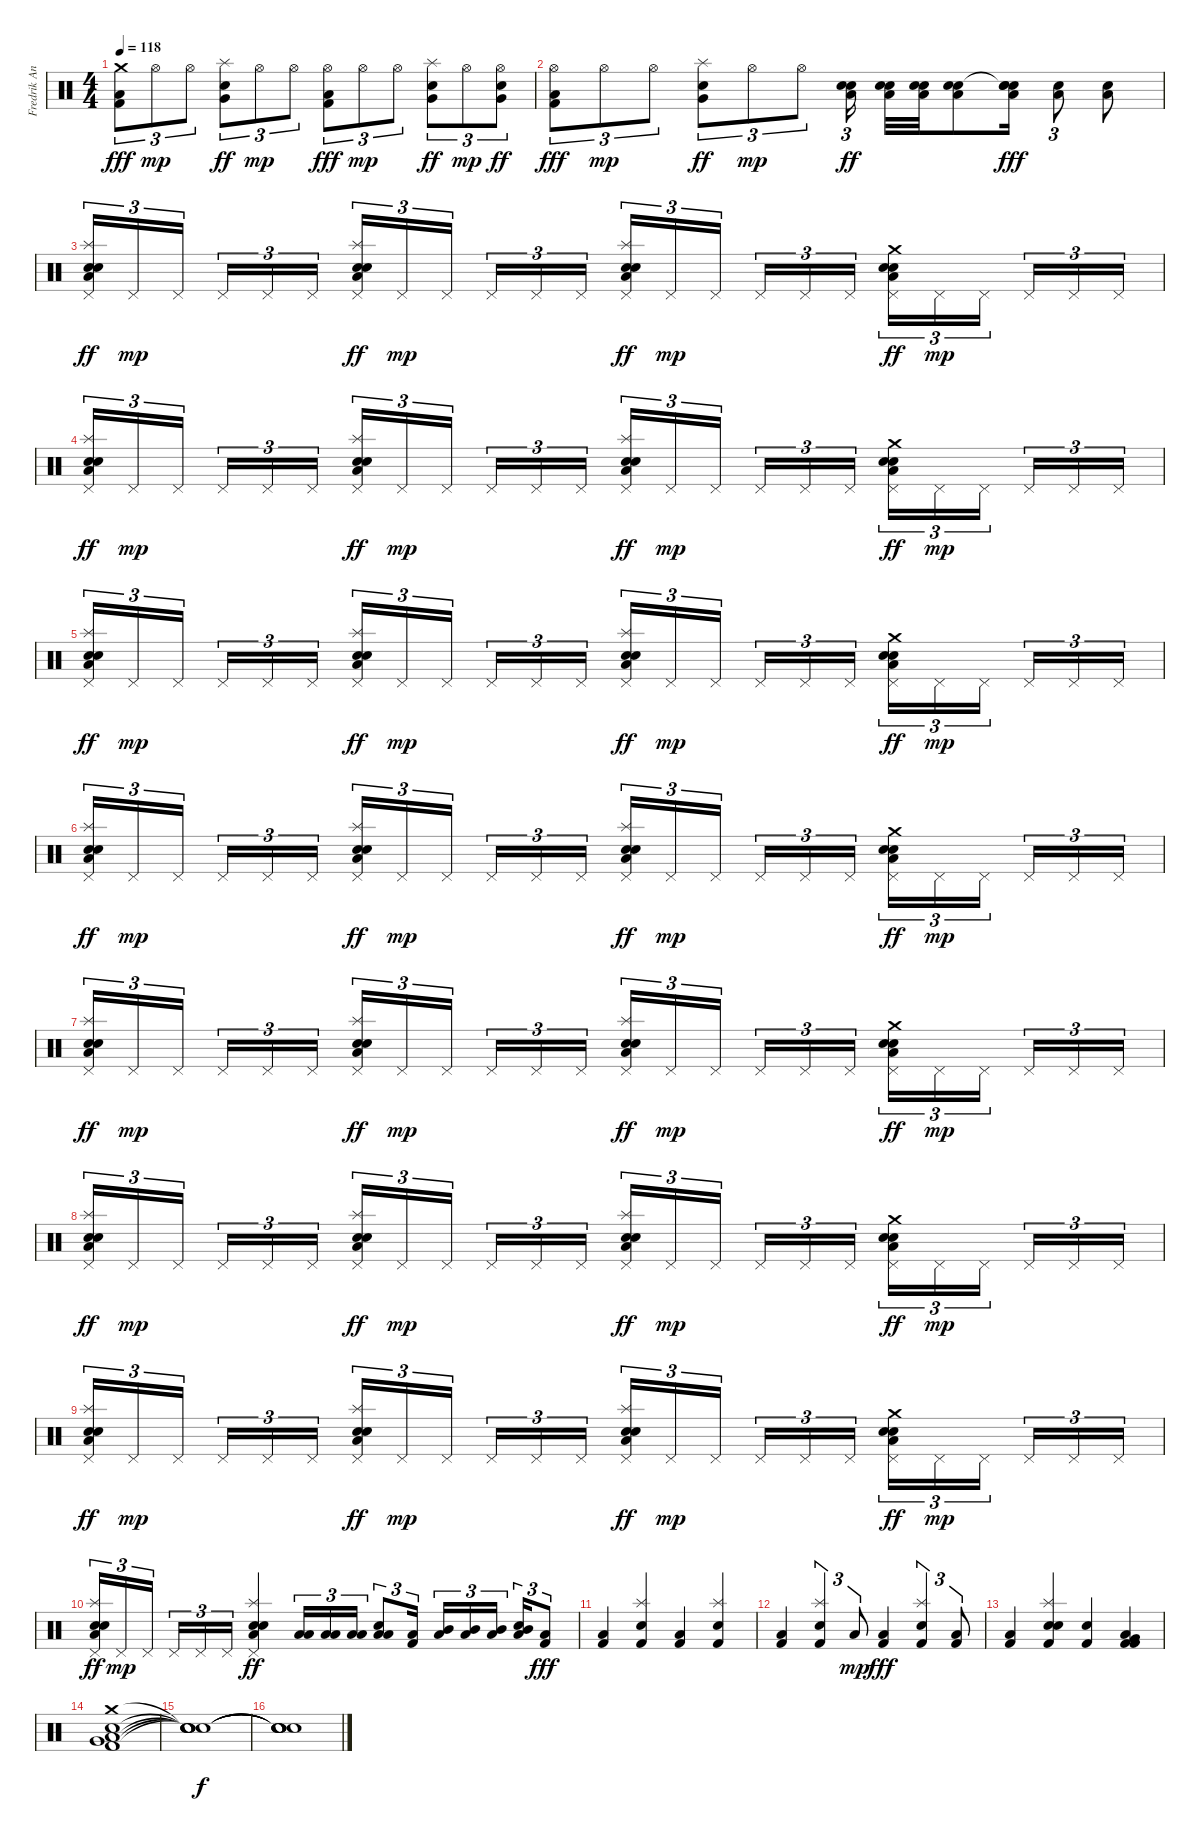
\track ("Fredrik Andersson " "Fredrik An") {instrument percussion}
\staff {score}
\articulation defaults
\ts (4 4)
\tempo 118
\clef neutral
\ks c
("Crash medium (hit)" "Kick (hit) 2" "Low Floor Tom (hit)").8{tu (3 2) dy fff} "Hi-Hat (open)".8{tu (3 2) dy mp} "Hi-Hat (open)".8{tu (3 2)} ("Splash (hit)" "Very Low Tom (hit)" "Snare (hit) 2").8{tu (3 2) dy ff} "Hi-Hat (open)".8{tu (3 2) dy mp} "Hi-Hat (open)".8{tu (3 2)} ("Hi-Hat (open)" "Kick (hit) 2" "Low Floor Tom (hit)").8{tu (3 2) dy fff} "Hi-Hat (open)".8{tu (3 2) dy mp} "Hi-Hat (open)".8{tu (3 2)} ("Splash (hit)" "Very Low Tom (hit)" "Snare (hit) 2").8{tu (3 2) dy ff} "Hi-Hat (open)".8{tu (3 2) dy mp} ("Hi-Hat (open)" "Very Low Tom (hit)" "Snare (hit) 2").8{tu (3 2) dy ff} |
("Hi-Hat (open)" "Kick (hit) 2" "Low Floor Tom (hit)").8{tu (3 2) dy fff} "Hi-Hat (open)".8{tu (3 2) dy mp} "Hi-Hat (open)".8{tu (3 2)} ("Splash (hit)" "Very Low Tom (hit)" "Snare (hit) 2").8{tu (3 2) dy ff} "Hi-Hat (open)".8{tu (3 2) dy mp} "Hi-Hat (open)".8{tu (3 2)} ("Snare (hit) 2" "Electric Snare (hit)" "Low Floor Tom (hit)").16{tu (3 2) dy ff beam splitsecondary} ("Snare (hit) 2" "Electric Snare (hit)" "Low Floor Tom (hit)").32 ("Snare (hit) 2" "Electric Snare (hit)" "Low Floor Tom (hit)").32 ("Snare (hit) 2" "Electric Snare (hit)" "Low Floor Tom (hit)").8 ("Snare (hit)"{t} "Snare (hit) 2" "Low Floor Tom (hit)" "Snare (hit)"{t}).16{dy fff} ("Snare (hit) 2" "Low Floor Tom (hit)").8{tu (3 2)} ("Snare (hit) 2" "Low Floor Tom (hit)").8 |
("Splash (hit)" "Pedal Hi-Hat (hit)" "Electric Snare (hit)" "Snare (hit) 2" "Low Floor Tom (hit)").16{tu (3 2) dy ff} "Pedal Hi-Hat (hit)".16{tu (3 2) dy mp} "Pedal Hi-Hat (hit)".16{tu (3 2) beam splitsecondary} "Pedal Hi-Hat (hit)".16{tu (3 2)} "Pedal Hi-Hat (hit)".16{tu (3 2)} "Pedal Hi-Hat (hit)".16{tu (3 2)} ("Splash (hit)" "Pedal Hi-Hat (hit)" "Electric Snare (hit)" "Snare (hit) 2" "Low Floor Tom (hit)").16{tu (3 2) dy ff} "Pedal Hi-Hat (hit)".16{tu (3 2) dy mp} "Pedal Hi-Hat (hit)".16{tu (3 2) beam splitsecondary} "Pedal Hi-Hat (hit)".16{tu (3 2)} "Pedal Hi-Hat (hit)".16{tu (3 2)} "Pedal Hi-Hat (hit)".16{tu (3 2)} ("Splash (hit)" "Pedal Hi-Hat (hit)" "Electric Snare (hit)" "Snare (hit) 2" "Low Floor Tom (hit)").16{tu (3 2) dy ff} "Pedal Hi-Hat (hit)".16{tu (3 2) dy mp} "Pedal Hi-Hat (hit)".16{tu (3 2) beam splitsecondary} "Pedal Hi-Hat (hit)".16{tu (3 2)} "Pedal Hi-Hat (hit)".16{tu (3 2)} "Pedal Hi-Hat (hit)".16{tu (3 2)} ("Crash medium (hit)" "Pedal Hi-Hat (hit)" "Electric Snare (hit)" "Snare (hit) 2" "Low Floor Tom (hit)").16{tu (3 2) dy ff} "Pedal Hi-Hat (hit)".16{tu (3 2) dy mp} "Pedal Hi-Hat (hit)".16{tu (3 2) beam splitsecondary} "Pedal Hi-Hat (hit)".16{tu (3 2)} "Pedal Hi-Hat (hit)".16{tu (3 2)} "Pedal Hi-Hat (hit)".16{tu (3 2)} |
("Splash (hit)" "Pedal Hi-Hat (hit)" "Electric Snare (hit)" "Snare (hit) 2" "Low Floor Tom (hit)").16{tu (3 2) dy ff} "Pedal Hi-Hat (hit)".16{tu (3 2) dy mp} "Pedal Hi-Hat (hit)".16{tu (3 2) beam splitsecondary} "Pedal Hi-Hat (hit)".16{tu (3 2)} "Pedal Hi-Hat (hit)".16{tu (3 2)} "Pedal Hi-Hat (hit)".16{tu (3 2)} ("Splash (hit)" "Pedal Hi-Hat (hit)" "Electric Snare (hit)" "Snare (hit) 2" "Low Floor Tom (hit)").16{tu (3 2) dy ff} "Pedal Hi-Hat (hit)".16{tu (3 2) dy mp} "Pedal Hi-Hat (hit)".16{tu (3 2) beam splitsecondary} "Pedal Hi-Hat (hit)".16{tu (3 2)} "Pedal Hi-Hat (hit)".16{tu (3 2)} "Pedal Hi-Hat (hit)".16{tu (3 2)} ("Splash (hit)" "Pedal Hi-Hat (hit)" "Electric Snare (hit)" "Snare (hit) 2" "Low Floor Tom (hit)").16{tu (3 2) dy ff} "Pedal Hi-Hat (hit)".16{tu (3 2) dy mp} "Pedal Hi-Hat (hit)".16{tu (3 2) beam splitsecondary} "Pedal Hi-Hat (hit)".16{tu (3 2)} "Pedal Hi-Hat (hit)".16{tu (3 2)} "Pedal Hi-Hat (hit)".16{tu (3 2)} ("Crash medium (hit)" "Pedal Hi-Hat (hit)" "Electric Snare (hit)" "Snare (hit) 2" "Low Floor Tom (hit)").16{tu (3 2) dy ff} "Pedal Hi-Hat (hit)".16{tu (3 2) dy mp} "Pedal Hi-Hat (hit)".16{tu (3 2) beam splitsecondary} "Pedal Hi-Hat (hit)".16{tu (3 2)} "Pedal Hi-Hat (hit)".16{tu (3 2)} "Pedal Hi-Hat (hit)".16{tu (3 2)} |
("Splash (hit)" "Pedal Hi-Hat (hit)" "Electric Snare (hit)" "Snare (hit) 2" "Low Floor Tom (hit)").16{tu (3 2) dy ff} "Pedal Hi-Hat (hit)".16{tu (3 2) dy mp} "Pedal Hi-Hat (hit)".16{tu (3 2) beam splitsecondary} "Pedal Hi-Hat (hit)".16{tu (3 2)} "Pedal Hi-Hat (hit)".16{tu (3 2)} "Pedal Hi-Hat (hit)".16{tu (3 2)} ("Splash (hit)" "Pedal Hi-Hat (hit)" "Electric Snare (hit)" "Snare (hit) 2" "Low Floor Tom (hit)").16{tu (3 2) dy ff} "Pedal Hi-Hat (hit)".16{tu (3 2) dy mp} "Pedal Hi-Hat (hit)".16{tu (3 2) beam splitsecondary} "Pedal Hi-Hat (hit)".16{tu (3 2)} "Pedal Hi-Hat (hit)".16{tu (3 2)} "Pedal Hi-Hat (hit)".16{tu (3 2)} ("Splash (hit)" "Pedal Hi-Hat (hit)" "Electric Snare (hit)" "Snare (hit) 2" "Low Floor Tom (hit)").16{tu (3 2) dy ff} "Pedal Hi-Hat (hit)".16{tu (3 2) dy mp} "Pedal Hi-Hat (hit)".16{tu (3 2) beam splitsecondary} "Pedal Hi-Hat (hit)".16{tu (3 2)} "Pedal Hi-Hat (hit)".16{tu (3 2)} "Pedal Hi-Hat (hit)".16{tu (3 2)} ("Crash medium (hit)" "Pedal Hi-Hat (hit)" "Electric Snare (hit)" "Snare (hit) 2" "Low Floor Tom (hit)").16{tu (3 2) dy ff} "Pedal Hi-Hat (hit)".16{tu (3 2) dy mp} "Pedal Hi-Hat (hit)".16{tu (3 2) beam splitsecondary} "Pedal Hi-Hat (hit)".16{tu (3 2)} "Pedal Hi-Hat (hit)".16{tu (3 2)} "Pedal Hi-Hat (hit)".16{tu (3 2)} |
("Splash (hit)" "Pedal Hi-Hat (hit)" "Electric Snare (hit)" "Snare (hit) 2" "Low Floor Tom (hit)").16{tu (3 2) dy ff} "Pedal Hi-Hat (hit)".16{tu (3 2) dy mp} "Pedal Hi-Hat (hit)".16{tu (3 2) beam splitsecondary} "Pedal Hi-Hat (hit)".16{tu (3 2)} "Pedal Hi-Hat (hit)".16{tu (3 2)} "Pedal Hi-Hat (hit)".16{tu (3 2)} ("Splash (hit)" "Pedal Hi-Hat (hit)" "Electric Snare (hit)" "Snare (hit) 2" "Low Floor Tom (hit)").16{tu (3 2) dy ff} "Pedal Hi-Hat (hit)".16{tu (3 2) dy mp} "Pedal Hi-Hat (hit)".16{tu (3 2) beam splitsecondary} "Pedal Hi-Hat (hit)".16{tu (3 2)} "Pedal Hi-Hat (hit)".16{tu (3 2)} "Pedal Hi-Hat (hit)".16{tu (3 2)} ("Splash (hit)" "Pedal Hi-Hat (hit)" "Electric Snare (hit)" "Snare (hit) 2" "Low Floor Tom (hit)").16{tu (3 2) dy ff} "Pedal Hi-Hat (hit)".16{tu (3 2) dy mp} "Pedal Hi-Hat (hit)".16{tu (3 2) beam splitsecondary} "Pedal Hi-Hat (hit)".16{tu (3 2)} "Pedal Hi-Hat (hit)".16{tu (3 2)} "Pedal Hi-Hat (hit)".16{tu (3 2)} ("Crash medium (hit)" "Pedal Hi-Hat (hit)" "Electric Snare (hit)" "Snare (hit) 2" "Low Floor Tom (hit)").16{tu (3 2) dy ff} "Pedal Hi-Hat (hit)".16{tu (3 2) dy mp} "Pedal Hi-Hat (hit)".16{tu (3 2) beam splitsecondary} "Pedal Hi-Hat (hit)".16{tu (3 2)} "Pedal Hi-Hat (hit)".16{tu (3 2)} "Pedal Hi-Hat (hit)".16{tu (3 2)} |
("Splash (hit)" "Pedal Hi-Hat (hit)" "Electric Snare (hit)" "Snare (hit) 2" "Low Floor Tom (hit)").16{tu (3 2) dy ff} "Pedal Hi-Hat (hit)".16{tu (3 2) dy mp} "Pedal Hi-Hat (hit)".16{tu (3 2) beam splitsecondary} "Pedal Hi-Hat (hit)".16{tu (3 2)} "Pedal Hi-Hat (hit)".16{tu (3 2)} "Pedal Hi-Hat (hit)".16{tu (3 2)} ("Splash (hit)" "Pedal Hi-Hat (hit)" "Electric Snare (hit)" "Snare (hit) 2" "Low Floor Tom (hit)").16{tu (3 2) dy ff} "Pedal Hi-Hat (hit)".16{tu (3 2) dy mp} "Pedal Hi-Hat (hit)".16{tu (3 2) beam splitsecondary} "Pedal Hi-Hat (hit)".16{tu (3 2)} "Pedal Hi-Hat (hit)".16{tu (3 2)} "Pedal Hi-Hat (hit)".16{tu (3 2)} ("Splash (hit)" "Pedal Hi-Hat (hit)" "Electric Snare (hit)" "Snare (hit) 2" "Low Floor Tom (hit)").16{tu (3 2) dy ff} "Pedal Hi-Hat (hit)".16{tu (3 2) dy mp} "Pedal Hi-Hat (hit)".16{tu (3 2) beam splitsecondary} "Pedal Hi-Hat (hit)".16{tu (3 2)} "Pedal Hi-Hat (hit)".16{tu (3 2)} "Pedal Hi-Hat (hit)".16{tu (3 2)} ("Crash medium (hit)" "Pedal Hi-Hat (hit)" "Electric Snare (hit)" "Snare (hit) 2" "Low Floor Tom (hit)").16{tu (3 2) dy ff} "Pedal Hi-Hat (hit)".16{tu (3 2) dy mp} "Pedal Hi-Hat (hit)".16{tu (3 2) beam splitsecondary} "Pedal Hi-Hat (hit)".16{tu (3 2)} "Pedal Hi-Hat (hit)".16{tu (3 2)} "Pedal Hi-Hat (hit)".16{tu (3 2)} |
("Splash (hit)" "Pedal Hi-Hat (hit)" "Electric Snare (hit)" "Snare (hit) 2" "Low Floor Tom (hit)").16{tu (3 2) dy ff} "Pedal Hi-Hat (hit)".16{tu (3 2) dy mp} "Pedal Hi-Hat (hit)".16{tu (3 2) beam splitsecondary} "Pedal Hi-Hat (hit)".16{tu (3 2)} "Pedal Hi-Hat (hit)".16{tu (3 2)} "Pedal Hi-Hat (hit)".16{tu (3 2)} ("Splash (hit)" "Pedal Hi-Hat (hit)" "Electric Snare (hit)" "Snare (hit) 2" "Low Floor Tom (hit)").16{tu (3 2) dy ff} "Pedal Hi-Hat (hit)".16{tu (3 2) dy mp} "Pedal Hi-Hat (hit)".16{tu (3 2) beam splitsecondary} "Pedal Hi-Hat (hit)".16{tu (3 2)} "Pedal Hi-Hat (hit)".16{tu (3 2)} "Pedal Hi-Hat (hit)".16{tu (3 2)} ("Splash (hit)" "Pedal Hi-Hat (hit)" "Electric Snare (hit)" "Snare (hit) 2" "Low Floor Tom (hit)").16{tu (3 2) dy ff} "Pedal Hi-Hat (hit)".16{tu (3 2) dy mp} "Pedal Hi-Hat (hit)".16{tu (3 2) beam splitsecondary} "Pedal Hi-Hat (hit)".16{tu (3 2)} "Pedal Hi-Hat (hit)".16{tu (3 2)} "Pedal Hi-Hat (hit)".16{tu (3 2)} ("Crash medium (hit)" "Pedal Hi-Hat (hit)" "Electric Snare (hit)" "Snare (hit) 2" "Low Floor Tom (hit)").16{tu (3 2) dy ff} "Pedal Hi-Hat (hit)".16{tu (3 2) dy mp} "Pedal Hi-Hat (hit)".16{tu (3 2) beam splitsecondary} "Pedal Hi-Hat (hit)".16{tu (3 2)} "Pedal Hi-Hat (hit)".16{tu (3 2)} "Pedal Hi-Hat (hit)".16{tu (3 2)} |
("Splash (hit)" "Pedal Hi-Hat (hit)" "Electric Snare (hit)" "Snare (hit) 2" "Low Floor Tom (hit)").16{tu (3 2) dy ff} "Pedal Hi-Hat (hit)".16{tu (3 2) dy mp} "Pedal Hi-Hat (hit)".16{tu (3 2) beam splitsecondary} "Pedal Hi-Hat (hit)".16{tu (3 2)} "Pedal Hi-Hat (hit)".16{tu (3 2)} "Pedal Hi-Hat (hit)".16{tu (3 2)} ("Splash (hit)" "Pedal Hi-Hat (hit)" "Electric Snare (hit)" "Snare (hit) 2" "Low Floor Tom (hit)").16{tu (3 2) dy ff} "Pedal Hi-Hat (hit)".16{tu (3 2) dy mp} "Pedal Hi-Hat (hit)".16{tu (3 2) beam splitsecondary} "Pedal Hi-Hat (hit)".16{tu (3 2)} "Pedal Hi-Hat (hit)".16{tu (3 2)} "Pedal Hi-Hat (hit)".16{tu (3 2)} ("Splash (hit)" "Pedal Hi-Hat (hit)" "Electric Snare (hit)" "Snare (hit) 2" "Low Floor Tom (hit)").16{tu (3 2) dy ff} "Pedal Hi-Hat (hit)".16{tu (3 2) dy mp} "Pedal Hi-Hat (hit)".16{tu (3 2) beam splitsecondary} "Pedal Hi-Hat (hit)".16{tu (3 2)} "Pedal Hi-Hat (hit)".16{tu (3 2)} "Pedal Hi-Hat (hit)".16{tu (3 2)} ("Crash medium (hit)" "Pedal Hi-Hat (hit)" "Electric Snare (hit)" "Snare (hit) 2" "Low Floor Tom (hit)").16{tu (3 2) dy ff} "Pedal Hi-Hat (hit)".16{tu (3 2) dy mp} "Pedal Hi-Hat (hit)".16{tu (3 2) beam splitsecondary} "Pedal Hi-Hat (hit)".16{tu (3 2)} "Pedal Hi-Hat (hit)".16{tu (3 2)} "Pedal Hi-Hat (hit)".16{tu (3 2)} |
("Splash (hit)" "Pedal Hi-Hat (hit)" "Electric Snare (hit)" "Snare (hit) 2" "Low Floor Tom (hit)").16{tu (3 2) dy ff} "Pedal Hi-Hat (hit)".16{tu (3 2) dy mp} "Pedal Hi-Hat (hit)".16{tu (3 2) beam splitsecondary} "Pedal Hi-Hat (hit)".16{tu (3 2)} "Pedal Hi-Hat (hit)".16{tu (3 2)} "Pedal Hi-Hat (hit)".16{tu (3 2)} ("Splash (hit)" "Pedal Hi-Hat (hit)" "Electric Snare (hit)" "Snare (hit) 2" "Low Floor Tom (hit)").4{dy ff} ("Low Tom (hit)" "Low Floor Tom (hit)").16{tu (3 2)} ("Low Tom (hit)" "Low Floor Tom (hit)").16{tu (3 2)} ("Low Tom (hit)" "Low Floor Tom (hit)").16{tu (3 2)} ("Snare (hit) 2" "Low Tom (hit)" "Low Floor Tom (hit)").8{tu (3 2)} ("Kick (hit) 2" "Low Floor Tom (hit)").16{tu (3 2)} ("Mid Tom (hit)" "Low Floor Tom (hit)").16{tu (3 2)} ("Mid Tom (hit)" "Low Floor Tom (hit)").16{tu (3 2)} ("Mid Tom (hit)" "Low Floor Tom (hit)").16{tu (3 2) beam splitsecondary} ("Snare (hit) 2" "Mid Tom (hit)" "Low Floor Tom (hit)").16{tu (3 2)} ("Kick (hit) 2" "Low Floor Tom (hit)").8{tu (3 2) dy fff} |
("Kick (hit) 2" "Low Floor Tom (hit)").4{volume 10} ("Splash (hit)" "Snare (hit) 2" "Kick (hit) 2").4 ("Kick (hit) 2" "Low Floor Tom (hit)").4 ("Splash (hit)" "Snare (hit) 2" "Kick (hit) 2").4 |
("Kick (hit) 2" "Low Floor Tom (hit)").4 ("Splash (hit)" "Snare (hit) 2" "Kick (hit) 2").4{tu (3 2)} "Low Floor Tom (hit)".8{tu (3 2) dy mp} ("Kick (hit) 2" "Low Floor Tom (hit)").4{dy fff} ("Splash (hit)" "Snare (hit) 2" "Kick (hit) 2").4{tu (3 2)} ("Kick (hit) 2" "Low Floor Tom (hit)").8{tu (3 2)} |
("Low Floor Tom (hit)" "Kick (hit) 2").4 ("Splash (hit)" "Electric Snare (hit)" "Snare (hit) 2" "Kick (hit) 2").4 ("Snare (hit) 2" "Kick (hit) 2").4 ("Low Tom (hit)" "Very Low Tom (hit)" "Kick (hit) 2" "Kick (hit) 2").4 |
("Crash medium (hit)" "Very Low Tom (hit)" "Snare (hit) 2" "Kick (hit) 2" "Low Floor Tom (hit)").1 |
("Snare (hit)"{t} "Snare (hit)"{t} "Snare (hit)"{t} "Snare (hit)"{t} "Snare (hit)"{t}).1{dy f} |
("Snare (hit)"{t} "Snare (hit)"{t} "Snare (hit)"{t} "Snare (hit)"{t} "Snare (hit)"{t}).1
